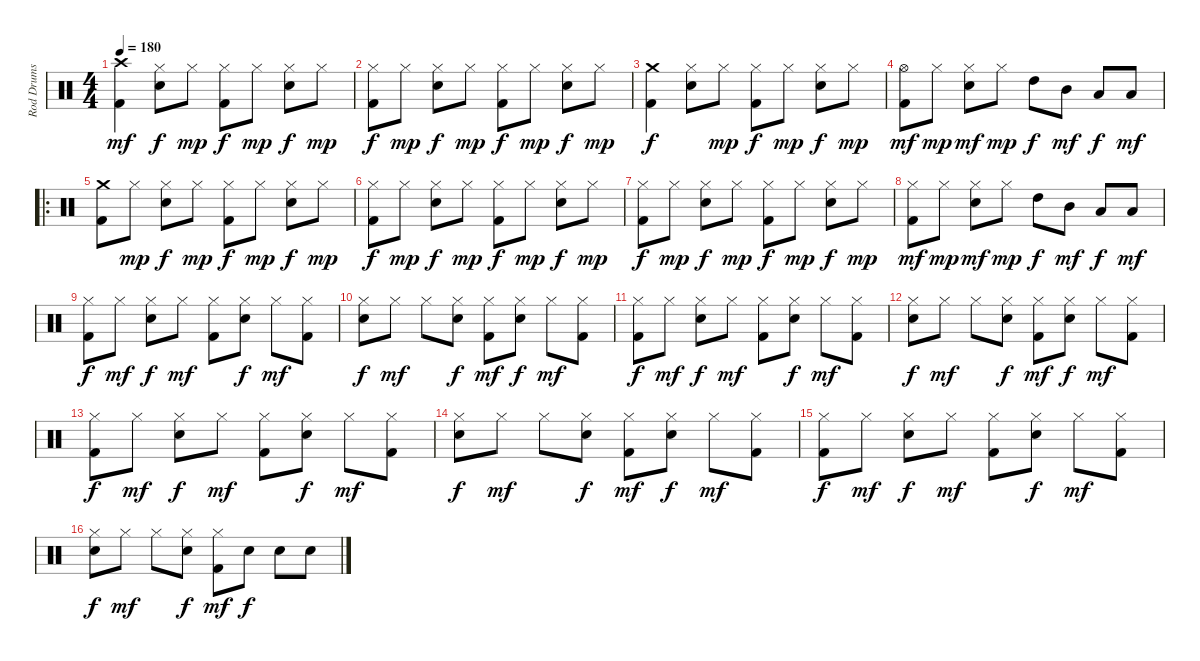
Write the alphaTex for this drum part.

\track ("Rod Drums" "Rod Drums") {instrument percussion}
\staff {score}
\articulation defaults
\ts (4 4)
\tempo 180
\clef neutral
\ks c
("Crash high (hit)" "Kick (hit) 2").4{dy mf} ("Hi-Hat (closed)" "Snare (hit) 2").8{dy f} "Hi-Hat (closed)".8{dy mp} ("Hi-Hat (closed)" "Kick (hit) 2").8{dy f} "Hi-Hat (closed)".8{dy mp} ("Hi-Hat (closed)" "Snare (hit) 2").8{dy f} "Hi-Hat (closed)".8{dy mp} |
("Hi-Hat (closed)" "Kick (hit) 2").8{dy f} "Hi-Hat (closed)".8{dy mp} ("Hi-Hat (closed)" "Snare (hit) 2").8{dy f} "Hi-Hat (closed)".8{dy mp} ("Hi-Hat (closed)" "Kick (hit) 2").8{dy f} "Hi-Hat (closed)".8{dy mp} ("Hi-Hat (closed)" "Snare (hit) 2").8{dy f} "Hi-Hat (closed)".8{dy mp} |
("Crash medium (hit)" "Kick (hit) 2").4{dy f} ("Hi-Hat (closed)" "Snare (hit) 2").8 "Hi-Hat (closed)".8{dy mp} ("Hi-Hat (closed)" "Kick (hit) 2").8{dy f} "Hi-Hat (closed)".8{dy mp} ("Hi-Hat (closed)" "Snare (hit) 2").8{dy f} "Hi-Hat (closed)".8{dy mp} |
("Hi-Hat (open)" "Kick (hit) 2").8{dy mf} "Hi-Hat (closed)".8{dy mp} ("Hi-Hat (closed)" "Snare (hit) 2").8{dy mf} "Hi-Hat (closed)".8{dy mp} "High Tom (hit)".8{dy f} "Mid Tom (hit)".8{dy mf} "Low Tom (hit)".8{dy f} "Low Tom (hit)".8{dy mf} |
\ro
("Crash medium (hit)" "Kick (hit) 2").8 "Hi-Hat (closed)".8{dy mp} ("Hi-Hat (closed)" "Snare (hit) 2").8{dy f} "Hi-Hat (closed)".8{dy mp} ("Hi-Hat (closed)" "Kick (hit) 2").8{dy f} "Hi-Hat (closed)".8{dy mp} ("Hi-Hat (closed)" "Snare (hit) 2").8{dy f} "Hi-Hat (closed)".8{dy mp} |
("Hi-Hat (closed)" "Kick (hit) 2").8{dy f} "Hi-Hat (closed)".8{dy mp} ("Hi-Hat (closed)" "Snare (hit) 2").8{dy f} "Hi-Hat (closed)".8{dy mp} ("Hi-Hat (closed)" "Kick (hit) 2").8{dy f} "Hi-Hat (closed)".8{dy mp} ("Hi-Hat (closed)" "Snare (hit) 2").8{dy f} "Hi-Hat (closed)".8{dy mp} |
("Hi-Hat (closed)" "Kick (hit) 2").8{dy f} "Hi-Hat (closed)".8{dy mp} ("Hi-Hat (closed)" "Snare (hit) 2").8{dy f} "Hi-Hat (closed)".8{dy mp} ("Hi-Hat (closed)" "Kick (hit) 2").8{dy f} "Hi-Hat (closed)".8{dy mp} ("Hi-Hat (closed)" "Snare (hit) 2").8{dy f} "Hi-Hat (closed)".8{dy mp} |
("Hi-Hat (closed)" "Kick (hit) 2").8{dy mf} "Hi-Hat (closed)".8{dy mp} ("Hi-Hat (closed)" "Snare (hit) 2").8{dy mf} "Hi-Hat (closed)".8{dy mp} "High Tom (hit)".8{dy f} "Mid Tom (hit)".8{dy mf} "Low Tom (hit)".8{dy f} "Low Tom (hit)".8{dy mf} |
("Hi-Hat (closed)" "Kick (hit) 2").8{dy f} "Hi-Hat (closed)".8{dy mf} ("Hi-Hat (closed)" "Snare (hit) 2").8{dy f} "Hi-Hat (closed)".8{dy mf} ("Hi-Hat (closed)" "Kick (hit) 2").8 ("Hi-Hat (closed)" "Snare (hit) 2").8{dy f} "Hi-Hat (closed)".8{dy mf} ("Hi-Hat (closed)" "Kick (hit) 2").8 |
("Hi-Hat (closed)" "Snare (hit) 2").8{dy f} "Hi-Hat (closed)".8{dy mf} "Hi-Hat (closed)".8 ("Hi-Hat (closed)" "Snare (hit) 2").8{dy f} ("Hi-Hat (closed)" "Kick (hit) 2").8{dy mf} ("Hi-Hat (closed)" "Snare (hit) 2").8{dy f} "Hi-Hat (closed)".8{dy mf} ("Hi-Hat (closed)" "Kick (hit) 2").8 |
("Hi-Hat (closed)" "Kick (hit) 2").8{dy f} "Hi-Hat (closed)".8{dy mf} ("Hi-Hat (closed)" "Snare (hit) 2").8{dy f} "Hi-Hat (closed)".8{dy mf} ("Hi-Hat (closed)" "Kick (hit) 2").8 ("Hi-Hat (closed)" "Snare (hit) 2").8{dy f} "Hi-Hat (closed)".8{dy mf} ("Hi-Hat (closed)" "Kick (hit) 2").8 |
("Hi-Hat (closed)" "Snare (hit) 2").8{dy f} "Hi-Hat (closed)".8{dy mf} "Hi-Hat (closed)".8 ("Hi-Hat (closed)" "Snare (hit) 2").8{dy f} ("Hi-Hat (closed)" "Kick (hit) 2").8{dy mf} ("Hi-Hat (closed)" "Snare (hit) 2").8{dy f} "Hi-Hat (closed)".8{dy mf} ("Hi-Hat (closed)" "Kick (hit) 2").8 |
("Hi-Hat (closed)" "Kick (hit) 2").8{dy f} "Hi-Hat (closed)".8{dy mf} ("Hi-Hat (closed)" "Snare (hit) 2").8{dy f} "Hi-Hat (closed)".8{dy mf} ("Hi-Hat (closed)" "Kick (hit) 2").8 ("Hi-Hat (closed)" "Snare (hit) 2").8{dy f} "Hi-Hat (closed)".8{dy mf} ("Hi-Hat (closed)" "Kick (hit) 2").8 |
("Hi-Hat (closed)" "Snare (hit) 2").8{dy f} "Hi-Hat (closed)".8{dy mf} "Hi-Hat (closed)".8 ("Hi-Hat (closed)" "Snare (hit) 2").8{dy f} ("Hi-Hat (closed)" "Kick (hit) 2").8{dy mf} ("Hi-Hat (closed)" "Snare (hit) 2").8{dy f} "Hi-Hat (closed)".8{dy mf} ("Hi-Hat (closed)" "Kick (hit) 2").8 |
("Hi-Hat (closed)" "Kick (hit) 2").8{dy f} "Hi-Hat (closed)".8{dy mf} ("Hi-Hat (closed)" "Snare (hit) 2").8{dy f} "Hi-Hat (closed)".8{dy mf} ("Hi-Hat (closed)" "Kick (hit) 2").8 ("Hi-Hat (closed)" "Snare (hit) 2").8{dy f} "Hi-Hat (closed)".8{dy mf} ("Hi-Hat (closed)" "Kick (hit) 2").8 |
("Hi-Hat (closed)" "Snare (hit) 2").8{dy f} "Hi-Hat (closed)".8{dy mf} "Hi-Hat (closed)".8 ("Hi-Hat (closed)" "Snare (hit) 2").8{dy f} ("Hi-Hat (closed)" "Kick (hit) 2").8{dy mf} "Snare (hit) 2".8{dy f} "Snare (hit) 2".8 "Snare (hit) 2".8
